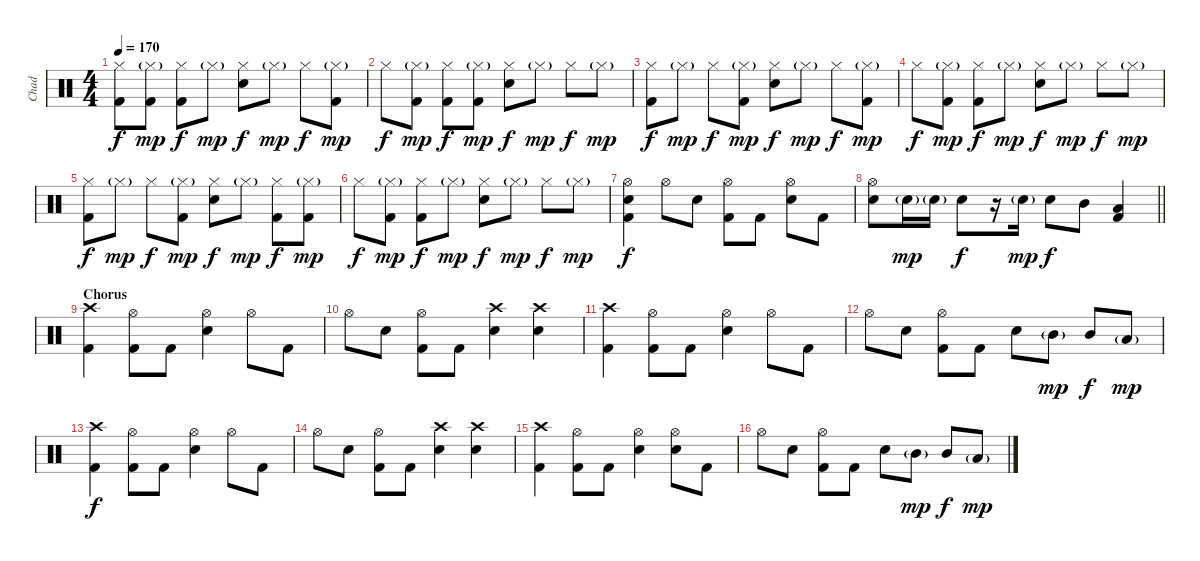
\track ("Chad" "Chad") {instrument percussion}
\staff {score}
\articulation defaults
\ts (4 4)
\tempo 170
\clef neutral
\ks c
("Hi-Hat (closed)" "Kick (hit) 2").8{dy f} ("Hi-Hat (closed)"{g} "Kick (hit) 2").8{dy mp} ("Hi-Hat (closed)" "Kick (hit) 2").8{dy f} "Hi-Hat (closed)"{g}.8{dy mp} ("Hi-Hat (closed)" "Snare (hit) 2").8{dy f} "Hi-Hat (closed)"{g}.8{dy mp} "Hi-Hat (closed)".8{dy f} ("Hi-Hat (closed)"{g} "Kick (hit) 2").8{dy mp} |
"Hi-Hat (closed)".8{dy f} ("Hi-Hat (closed)"{g} "Kick (hit) 2").8{dy mp} ("Hi-Hat (closed)" "Kick (hit) 2").8{dy f} ("Hi-Hat (closed)"{g} "Kick (hit) 2").8{dy mp} ("Hi-Hat (closed)" "Snare (hit) 2").8{dy f} "Hi-Hat (closed)"{g}.8{dy mp} "Hi-Hat (closed)".8{dy f} "Hi-Hat (closed)"{g}.8{dy mp} |
("Hi-Hat (closed)" "Kick (hit) 2").8{dy f} "Hi-Hat (closed)"{g}.8{dy mp} "Hi-Hat (closed)".8{dy f} ("Hi-Hat (closed)"{g} "Kick (hit) 2").8{dy mp} ("Hi-Hat (closed)" "Snare (hit) 2").8{dy f} "Hi-Hat (closed)"{g}.8{dy mp} "Hi-Hat (closed)".8{dy f} ("Hi-Hat (closed)"{g} "Kick (hit) 2").8{dy mp} |
"Hi-Hat (closed)".8{dy f} ("Hi-Hat (closed)"{g} "Kick (hit) 2").8{dy mp} ("Hi-Hat (closed)" "Kick (hit) 2").8{dy f} "Hi-Hat (closed)"{g}.8{dy mp} ("Hi-Hat (closed)" "Snare (hit) 2").8{dy f} "Hi-Hat (closed)"{g}.8{dy mp} "Hi-Hat (closed)".8{dy f} "Hi-Hat (closed)"{g}.8{dy mp} |
("Hi-Hat (closed)" "Kick (hit) 2").8{dy f} "Hi-Hat (closed)"{g}.8{dy mp} "Hi-Hat (closed)".8{dy f} ("Hi-Hat (closed)"{g} "Kick (hit) 2").8{dy mp} ("Hi-Hat (closed)" "Snare (hit) 2").8{dy f} "Hi-Hat (closed)"{g}.8{dy mp} ("Hi-Hat (closed)" "Kick (hit) 2").8{dy f} ("Hi-Hat (closed)"{g} "Kick (hit) 2").8{dy mp} |
"Hi-Hat (closed)".8{dy f} ("Hi-Hat (closed)"{g} "Kick (hit) 2").8{dy mp} ("Hi-Hat (closed)" "Kick (hit) 2").8{dy f} "Hi-Hat (closed)"{g}.8{dy mp} ("Hi-Hat (closed)" "Snare (hit) 2").8{dy f} "Hi-Hat (closed)"{g}.8{dy mp} "Hi-Hat (closed)".8{dy f} "Hi-Hat (closed)"{g}.8{dy mp} |
("Hi-Hat (open)" "Snare (hit) 2" "Kick (hit) 2").4{dy f} "Hi-Hat (open)".8 "Snare (hit) 2".8 ("Hi-Hat (open)" "Kick (hit) 2").8 "Kick (hit) 2".8 ("Hi-Hat (open)" "Snare (hit) 2").8 "Kick (hit) 2".8 |
\barLineRight lightlight
("Hi-Hat (open)" "Snare (hit) 2").8 "Snare (hit) 2"{g}.16{dy mp} "Snare (hit) 2"{g}.16 "Snare (hit) 2".8{dy f} r.16 "Snare (hit) 2"{g}.16{dy mp} "Snare (hit) 2".8{dy f} "Mid Tom (hit)".8 ("Low Tom (hit)" "Kick (hit) 2").4 |
\section ("" "Chorus")
("Crash high (hit)" "Kick (hit) 2").4 ("Hi-Hat (open)" "Kick (hit) 2").8 "Kick (hit) 2".8 ("Hi-Hat (open)" "Snare (hit) 2").4 "Hi-Hat (open)".8 "Kick (hit) 2".8 |
"Hi-Hat (open)".8 "Snare (hit) 2".8 ("Hi-Hat (open)" "Kick (hit) 2").8 "Kick (hit) 2".8 ("Crash high (hit)" "Snare (hit) 2").4 ("Crash high (hit)" "Snare (hit) 2").4 |
("Crash high (hit)" "Kick (hit) 2").4 ("Hi-Hat (open)" "Kick (hit) 2").8 "Kick (hit) 2".8 ("Hi-Hat (open)" "Snare (hit) 2").4 "Hi-Hat (open)".8 "Kick (hit) 2".8 |
"Hi-Hat (open)".8 "Snare (hit) 2".8 ("Hi-Hat (open)" "Kick (hit) 2").8 "Kick (hit) 2".8 "Snare (hit) 2".8 "Mid Tom (hit)"{g}.8{dy mp} "Mid Tom (hit)".8{dy f} "Low Tom (hit)"{g}.8{dy mp} |
("Crash high (hit)" "Kick (hit) 2").4{dy f} ("Hi-Hat (open)" "Kick (hit) 2").8 "Kick (hit) 2".8 ("Hi-Hat (open)" "Snare (hit) 2").4 "Hi-Hat (open)".8 "Kick (hit) 2".8 |
"Hi-Hat (open)".8 "Snare (hit) 2".8 ("Hi-Hat (open)" "Kick (hit) 2").8 "Kick (hit) 2".8 ("Crash high (hit)" "Snare (hit) 2").4 ("Crash high (hit)" "Snare (hit) 2").4 |
("Crash high (hit)" "Kick (hit) 2").4 ("Hi-Hat (open)" "Kick (hit) 2").8 "Kick (hit) 2".8 ("Hi-Hat (open)" "Snare (hit) 2").4 ("Hi-Hat (open)" "Snare (hit) 2").8 "Kick (hit) 2".8 |
"Hi-Hat (open)".8 "Snare (hit) 2".8 ("Hi-Hat (open)" "Kick (hit) 2").8 "Kick (hit) 2".8 "Snare (hit) 2".8 "Mid Tom (hit)"{g}.8{dy mp} "Mid Tom (hit)".8{dy f} "Low Tom (hit)"{g}.8{dy mp}
